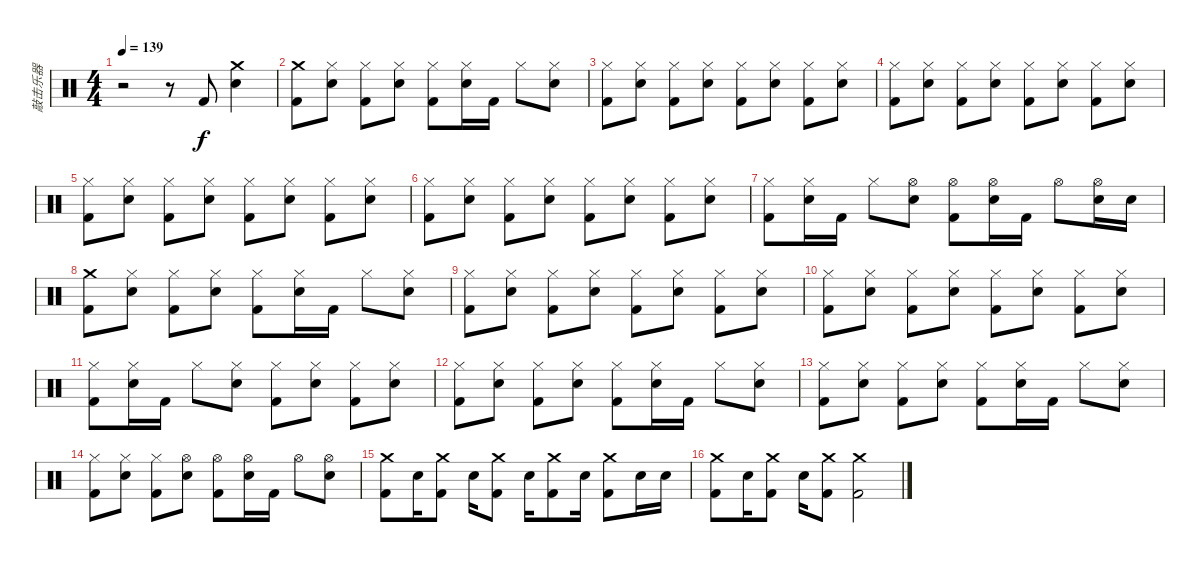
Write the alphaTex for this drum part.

\track ("敲击乐器" "敲击乐器") {instrument percussion}
\staff {score}
\articulation defaults
\ts (4 4)
\tempo 139
\clef neutral
\ks c
r.2{dy f} r.8 "Kick (hit) 2".8 ("Crash medium (hit)" "Electric Snare (hit)").4 |
("Crash medium (hit)" "Kick (hit) 2").8 ("Hi-Hat (closed)" "Electric Snare (hit)").8 ("Hi-Hat (closed)" "Kick (hit) 2").8 ("Hi-Hat (closed)" "Electric Snare (hit)").8 ("Hi-Hat (closed)" "Kick (hit) 2").8 ("Hi-Hat (closed)" "Electric Snare (hit)").16 "Kick (hit) 2".16 "Hi-Hat (closed)".8 ("Hi-Hat (closed)" "Electric Snare (hit)").8 |
("Hi-Hat (closed)" "Kick (hit) 2").8 ("Hi-Hat (closed)" "Electric Snare (hit)").8 ("Hi-Hat (closed)" "Kick (hit) 2").8 ("Hi-Hat (closed)" "Electric Snare (hit)").8 ("Hi-Hat (closed)" "Kick (hit) 2").8 ("Hi-Hat (closed)" "Electric Snare (hit)").8 ("Hi-Hat (closed)" "Kick (hit) 2").8 ("Hi-Hat (closed)" "Electric Snare (hit)").8 |
("Hi-Hat (closed)" "Kick (hit) 2").8 ("Hi-Hat (closed)" "Electric Snare (hit)").8 ("Hi-Hat (closed)" "Kick (hit) 2").8 ("Hi-Hat (closed)" "Electric Snare (hit)").8 ("Hi-Hat (closed)" "Kick (hit) 2").8 ("Hi-Hat (closed)" "Electric Snare (hit)").8 ("Hi-Hat (closed)" "Kick (hit) 2").8 ("Hi-Hat (closed)" "Electric Snare (hit)").8 |
("Hi-Hat (closed)" "Kick (hit) 2").8 ("Hi-Hat (closed)" "Electric Snare (hit)").8 ("Hi-Hat (closed)" "Kick (hit) 2").8 ("Hi-Hat (closed)" "Electric Snare (hit)").8 ("Hi-Hat (closed)" "Kick (hit) 2").8 ("Hi-Hat (closed)" "Electric Snare (hit)").8 ("Hi-Hat (closed)" "Kick (hit) 2").8 ("Hi-Hat (closed)" "Electric Snare (hit)").8 |
("Hi-Hat (closed)" "Kick (hit) 2").8 ("Hi-Hat (closed)" "Electric Snare (hit)").8 ("Hi-Hat (closed)" "Kick (hit) 2").8 ("Hi-Hat (closed)" "Electric Snare (hit)").8 ("Hi-Hat (closed)" "Kick (hit) 2").8 ("Hi-Hat (closed)" "Electric Snare (hit)").8 ("Hi-Hat (closed)" "Kick (hit) 2").8 ("Hi-Hat (closed)" "Electric Snare (hit)").8 |
("Hi-Hat (closed)" "Kick (hit) 2").8 ("Hi-Hat (closed)" "Electric Snare (hit)").16 "Kick (hit) 2".16 "Hi-Hat (closed)".8 ("Hi-Hat (open)" "Electric Snare (hit)").8 ("Hi-Hat (open)" "Kick (hit) 2").8 ("Hi-Hat (open)" "Electric Snare (hit)").16 "Kick (hit) 2".16 "Hi-Hat (open)".8 ("Hi-Hat (open)" "Electric Snare (hit)").16 "Electric Snare (hit)".16 |
("Crash medium (hit)" "Kick (hit) 2").8 ("Hi-Hat (closed)" "Electric Snare (hit)").8 ("Hi-Hat (closed)" "Kick (hit) 2").8 ("Hi-Hat (closed)" "Electric Snare (hit)").8 ("Hi-Hat (closed)" "Kick (hit) 2").8 ("Hi-Hat (closed)" "Electric Snare (hit)").16 "Kick (hit) 2".16 "Hi-Hat (closed)".8 ("Hi-Hat (closed)" "Electric Snare (hit)").8 |
("Hi-Hat (closed)" "Kick (hit) 2").8 ("Hi-Hat (closed)" "Electric Snare (hit)").8 ("Hi-Hat (closed)" "Kick (hit) 2").8 ("Hi-Hat (closed)" "Electric Snare (hit)").8 ("Hi-Hat (closed)" "Kick (hit) 2").8 ("Hi-Hat (closed)" "Electric Snare (hit)").8 ("Hi-Hat (closed)" "Kick (hit) 2").8 ("Hi-Hat (closed)" "Electric Snare (hit)").8 |
("Hi-Hat (closed)" "Kick (hit) 2").8 ("Hi-Hat (closed)" "Electric Snare (hit)").8 ("Hi-Hat (closed)" "Kick (hit) 2").8 ("Hi-Hat (closed)" "Electric Snare (hit)").8 ("Hi-Hat (closed)" "Kick (hit) 2").8 ("Hi-Hat (closed)" "Electric Snare (hit)").8 ("Hi-Hat (closed)" "Kick (hit) 2").8 ("Hi-Hat (closed)" "Electric Snare (hit)").8 |
("Hi-Hat (closed)" "Kick (hit) 2").8 ("Hi-Hat (closed)" "Electric Snare (hit)").16 "Kick (hit) 2".16 "Hi-Hat (closed)".8 ("Hi-Hat (closed)" "Electric Snare (hit)").8 ("Hi-Hat (closed)" "Kick (hit) 2").8 ("Hi-Hat (closed)" "Electric Snare (hit)").8 ("Hi-Hat (closed)" "Kick (hit) 2").8 ("Hi-Hat (closed)" "Electric Snare (hit)").8 |
("Hi-Hat (closed)" "Kick (hit) 2").8 ("Hi-Hat (closed)" "Electric Snare (hit)").8 ("Hi-Hat (closed)" "Kick (hit) 2").8 ("Hi-Hat (closed)" "Electric Snare (hit)").8 ("Hi-Hat (closed)" "Kick (hit) 2").8 ("Hi-Hat (closed)" "Electric Snare (hit)").16 "Kick (hit) 2".16 "Hi-Hat (closed)".8 ("Hi-Hat (closed)" "Electric Snare (hit)").8 |
("Hi-Hat (closed)" "Kick (hit) 2").8 ("Hi-Hat (closed)" "Electric Snare (hit)").8 ("Hi-Hat (closed)" "Kick (hit) 2").8 ("Hi-Hat (closed)" "Electric Snare (hit)").8 ("Hi-Hat (closed)" "Kick (hit) 2").8 ("Hi-Hat (closed)" "Electric Snare (hit)").16 "Kick (hit) 2".16 "Hi-Hat (closed)".8 ("Hi-Hat (closed)" "Electric Snare (hit)").8 |
("Hi-Hat (closed)" "Kick (hit) 2").8 ("Hi-Hat (closed)" "Electric Snare (hit)").8 ("Hi-Hat (closed)" "Kick (hit) 2").8 ("Hi-Hat (open)" "Electric Snare (hit)").8 ("Hi-Hat (open)" "Kick (hit) 2").8 ("Hi-Hat (open)" "Electric Snare (hit)").16 "Kick (hit) 2".16 "Hi-Hat (open)".8 ("Hi-Hat (open)" "Electric Snare (hit)").8 |
("Crash medium (hit)" "Kick (hit) 2").8 "Electric Snare (hit)".16 ("Crash medium (hit)" "Kick (hit) 2").8 "Electric Snare (hit)".16 ("Crash medium (hit)" "Kick (hit) 2").8 "Electric Snare (hit)".16 ("Crash medium (hit)" "Kick (hit) 2").8 "Electric Snare (hit)".16 ("Crash medium (hit)" "Kick (hit) 2").8 "Electric Snare (hit)".16 "Electric Snare (hit)".16 |
("Crash medium (hit)" "Kick (hit) 2").8 "Electric Snare (hit)".16 ("Crash medium (hit)" "Kick (hit) 2").8 "Electric Snare (hit)".16 ("Crash medium (hit)" "Kick (hit) 2").8 ("Crash medium (hit)" "Kick (hit) 2").2
